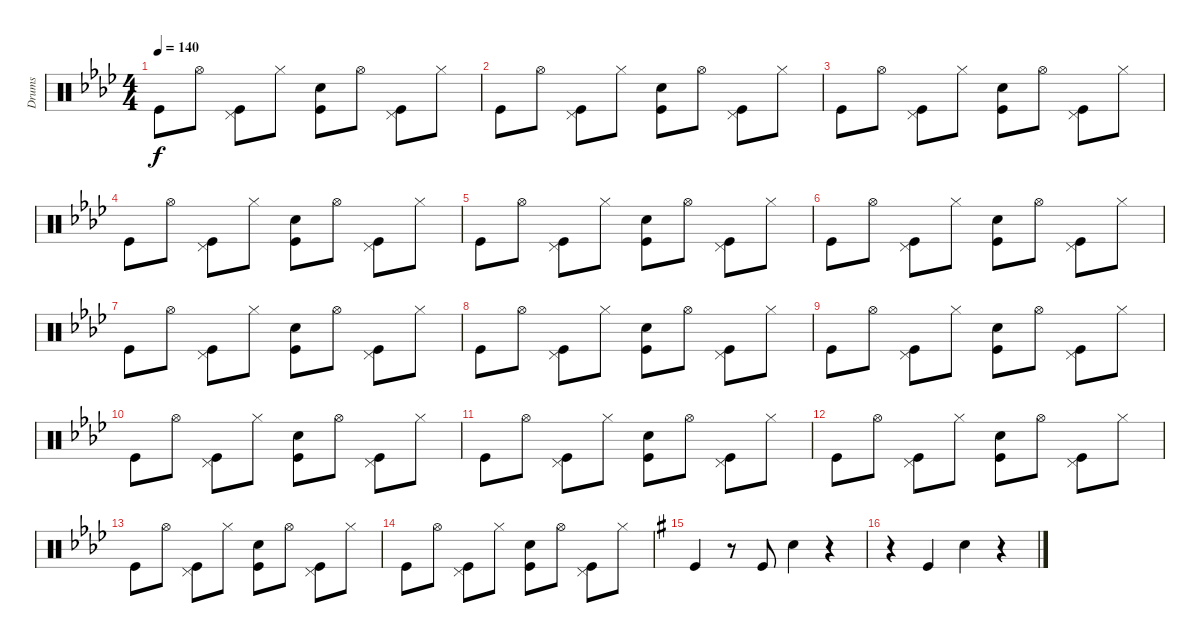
\track ("Drums" "Drums") {instrument percussion}
\staff {score}
\articulation defaults
\ts (4 4)
\tempo 140
\clef neutral
\ks ab "Kick (hit)".8{dy f} "Hi-Hat (open)".8
("Pedal Hi-Hat (hit)" "Kick (hit)").8 "Hi-Hat (closed)".8 ("Snare (hit) 2" "Kick (hit)").8 "Hi-Hat (open)".8 ("Pedal Hi-Hat (hit)" "Kick (hit)").8 "Hi-Hat (closed)".8 |
"Kick (hit)".8 "Hi-Hat (open)".8 ("Pedal Hi-Hat (hit)" "Kick (hit)").8 "Hi-Hat (closed)".8 ("Snare (hit) 2" "Kick (hit)").8 "Hi-Hat (open)".8 ("Pedal Hi-Hat (hit)" "Kick (hit)").8 "Hi-Hat (closed)".8 |
"Kick (hit)".8 "Hi-Hat (open)".8 ("Pedal Hi-Hat (hit)" "Kick (hit)").8 "Hi-Hat (closed)".8 ("Snare (hit) 2" "Kick (hit)").8 "Hi-Hat (open)".8 ("Pedal Hi-Hat (hit)" "Kick (hit)").8 "Hi-Hat (closed)".8 |
"Kick (hit)".8 "Hi-Hat (open)".8 ("Pedal Hi-Hat (hit)" "Kick (hit)").8 "Hi-Hat (closed)".8 ("Snare (hit) 2" "Kick (hit)").8 "Hi-Hat (open)".8 ("Pedal Hi-Hat (hit)" "Kick (hit)").8 "Hi-Hat (closed)".8 |
"Kick (hit)".8 "Hi-Hat (open)".8 ("Pedal Hi-Hat (hit)" "Kick (hit)").8 "Hi-Hat (closed)".8 ("Snare (hit) 2" "Kick (hit)").8 "Hi-Hat (open)".8 ("Pedal Hi-Hat (hit)" "Kick (hit)").8 "Hi-Hat (closed)".8 |
"Kick (hit)".8 "Hi-Hat (open)".8 ("Pedal Hi-Hat (hit)" "Kick (hit)").8 "Hi-Hat (closed)".8 ("Snare (hit) 2" "Kick (hit)").8 "Hi-Hat (open)".8 ("Pedal Hi-Hat (hit)" "Kick (hit)").8 "Hi-Hat (closed)".8 |
"Kick (hit)".8 "Hi-Hat (open)".8 ("Pedal Hi-Hat (hit)" "Kick (hit)").8 "Hi-Hat (closed)".8 ("Snare (hit) 2" "Kick (hit)").8 "Hi-Hat (open)".8 ("Pedal Hi-Hat (hit)" "Kick (hit)").8 "Hi-Hat (closed)".8 |
"Kick (hit)".8 "Hi-Hat (open)".8 ("Pedal Hi-Hat (hit)" "Kick (hit)").8 "Hi-Hat (closed)".8 ("Snare (hit) 2" "Kick (hit)").8 "Hi-Hat (open)".8 ("Pedal Hi-Hat (hit)" "Kick (hit)").8 "Hi-Hat (closed)".8 |
"Kick (hit)".8 "Hi-Hat (open)".8 ("Pedal Hi-Hat (hit)" "Kick (hit)").8 "Hi-Hat (closed)".8 ("Snare (hit) 2" "Kick (hit)").8 "Hi-Hat (open)".8 ("Pedal Hi-Hat (hit)" "Kick (hit)").8 "Hi-Hat (closed)".8 |
"Kick (hit)".8 "Hi-Hat (open)".8 ("Pedal Hi-Hat (hit)" "Kick (hit)").8 "Hi-Hat (closed)".8 ("Snare (hit) 2" "Kick (hit)").8 "Hi-Hat (open)".8 ("Pedal Hi-Hat (hit)" "Kick (hit)").8 "Hi-Hat (closed)".8 |
"Kick (hit)".8 "Hi-Hat (open)".8 ("Pedal Hi-Hat (hit)" "Kick (hit)").8 "Hi-Hat (closed)".8 ("Snare (hit) 2" "Kick (hit)").8 "Hi-Hat (open)".8 ("Pedal Hi-Hat (hit)" "Kick (hit)").8 "Hi-Hat (closed)".8 |
"Kick (hit)".8 "Hi-Hat (open)".8 ("Pedal Hi-Hat (hit)" "Kick (hit)").8 "Hi-Hat (closed)".8 ("Snare (hit) 2" "Kick (hit)").8 "Hi-Hat (open)".8 ("Pedal Hi-Hat (hit)" "Kick (hit)").8 "Hi-Hat (closed)".8 |
"Kick (hit)".8 "Hi-Hat (open)".8 ("Pedal Hi-Hat (hit)" "Kick (hit)").8 "Hi-Hat (closed)".8 ("Snare (hit) 2" "Kick (hit)").8 "Hi-Hat (open)".8 ("Pedal Hi-Hat (hit)" "Kick (hit)").8 "Hi-Hat (closed)".8 |
"Kick (hit)".8 "Hi-Hat (open)".8 ("Pedal Hi-Hat (hit)" "Kick (hit)").8 "Hi-Hat (closed)".8 ("Snare (hit) 2" "Kick (hit)").8 "Hi-Hat (open)".8 ("Pedal Hi-Hat (hit)" "Kick (hit)").8 "Hi-Hat (closed)".8 |
\ks g "Kick (hit)".4
r.8 "Kick (hit)".8 "Snare (hit) 2".4 r.4 |
r.4 "Kick (hit)".4 "Snare (hit) 2".4 r.4
